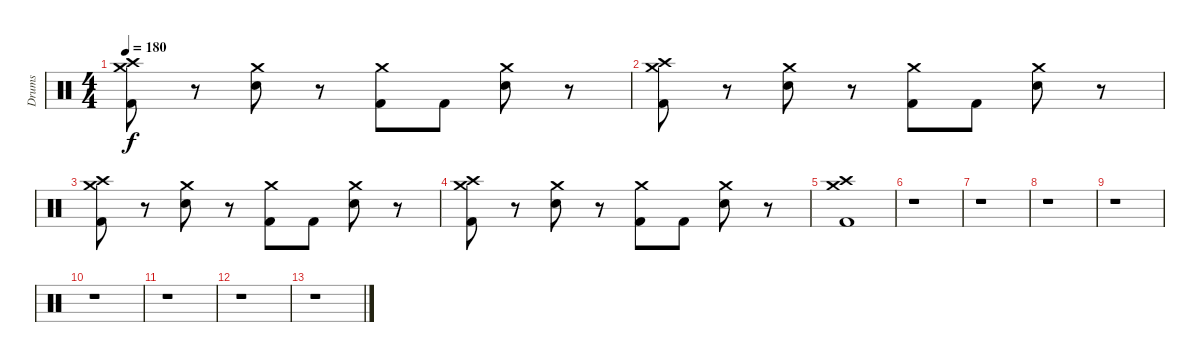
\track ("Drums" "Drums") {instrument percussion}
\staff {score}
\articulation defaults
\ts (4 4)
\tempo 180
\clef neutral
\ks c
("Crash medium (hit)" "Crash high (hit)" "Kick (hit) 2").8{dy f} r.8 ("Crash medium (hit)" "Snare (hit) 2").8 r.8 ("Crash medium (hit)" "Kick (hit) 2").8 "Kick (hit) 2".8 ("Crash medium (hit)" "Snare (hit) 2").8 r.8 |
("Crash medium (hit)" "Crash high (hit)" "Kick (hit) 2").8 r.8 ("Crash medium (hit)" "Snare (hit) 2").8 r.8 ("Crash medium (hit)" "Kick (hit) 2").8 "Kick (hit) 2".8 ("Crash medium (hit)" "Snare (hit) 2").8 r.8 |
("Crash medium (hit)" "Crash high (hit)" "Kick (hit) 2").8 r.8 ("Crash medium (hit)" "Snare (hit) 2").8 r.8 ("Crash medium (hit)" "Kick (hit) 2").8 "Kick (hit) 2".8 ("Crash medium (hit)" "Snare (hit) 2").8 r.8 |
("Crash medium (hit)" "Crash high (hit)" "Kick (hit) 2").8 r.8 ("Crash medium (hit)" "Snare (hit) 2").8 r.8 ("Crash medium (hit)" "Kick (hit) 2").8 "Kick (hit) 2".8 ("Crash medium (hit)" "Snare (hit) 2").8 r.8 |
("Crash high (hit)" "Crash medium (hit)" "Kick (hit) 2").1 |
r.1 |
r.1 |
r.1 |
r.1 |
r.1 |
r.1 |
r.1 |
r.1
